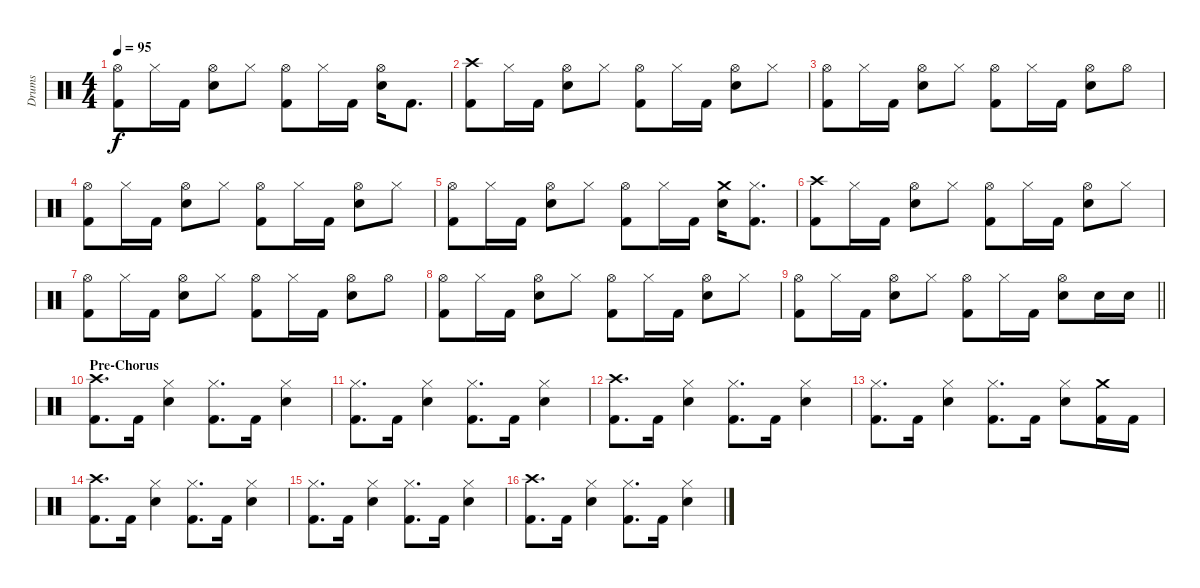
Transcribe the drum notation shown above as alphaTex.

\track ("Drums" "Drums") {instrument percussion}
\staff {score}
\articulation defaults
\ts (4 4)
\tempo 95
\clef neutral
\ks c
("Hi-Hat (open)" "Kick (hit) 2").8{dy f} "Hi-Hat (closed)".16 "Kick (hit) 2".16 ("Hi-Hat (open)" "Snare (hit) 2").8 "Hi-Hat (closed)".8 ("Hi-Hat (open)" "Kick (hit) 2").8 "Hi-Hat (closed)".16 "Kick (hit) 2".16 ("Hi-Hat (open)" "Snare (hit) 2").16 "Kick (hit) 2".8{d} |
("Crash high (hit)" "Kick (hit) 2").8 "Hi-Hat (closed)".16 "Kick (hit) 2".16 ("Hi-Hat (open)" "Snare (hit) 2").8 "Hi-Hat (closed)".8 ("Hi-Hat (open)" "Kick (hit) 2").8 "Hi-Hat (closed)".16 "Kick (hit) 2".16 ("Hi-Hat (open)" "Snare (hit) 2").8 "Hi-Hat (closed)".8 |
("Hi-Hat (open)" "Kick (hit) 2").8 "Hi-Hat (closed)".16 "Kick (hit) 2".16 ("Hi-Hat (open)" "Snare (hit) 2").8 "Hi-Hat (closed)".8 ("Hi-Hat (open)" "Kick (hit) 2").8 "Hi-Hat (closed)".16 "Kick (hit) 2".16 ("Hi-Hat (open)" "Snare (hit) 2").8 "Hi-Hat (open)".8 |
("Hi-Hat (open)" "Kick (hit) 2").8 "Hi-Hat (closed)".16 "Kick (hit) 2".16 ("Hi-Hat (open)" "Snare (hit) 2").8 "Hi-Hat (closed)".8 ("Hi-Hat (open)" "Kick (hit) 2").8 "Hi-Hat (closed)".16 "Kick (hit) 2".16 ("Hi-Hat (open)" "Snare (hit) 2").8 "Hi-Hat (closed)".8 |
("Hi-Hat (open)" "Kick (hit) 2").8 "Hi-Hat (closed)".16 "Kick (hit) 2".16 ("Hi-Hat (open)" "Snare (hit) 2").8 "Hi-Hat (closed)".8 ("Hi-Hat (open)" "Kick (hit) 2").8 "Hi-Hat (closed)".16 "Kick (hit) 2".16 ("Crash medium (hit)" "Snare (hit) 2").16 ("Hi-Hat (closed)" "Kick (hit) 2").8{d} |
("Crash high (hit)" "Kick (hit) 2").8 "Hi-Hat (closed)".16 "Kick (hit) 2".16 ("Hi-Hat (open)" "Snare (hit) 2").8 "Hi-Hat (closed)".8 ("Hi-Hat (open)" "Kick (hit) 2").8 "Hi-Hat (closed)".16 "Kick (hit) 2".16 ("Hi-Hat (open)" "Snare (hit) 2").8 "Hi-Hat (closed)".8 |
("Hi-Hat (open)" "Kick (hit) 2").8 "Hi-Hat (closed)".16 "Kick (hit) 2".16 ("Hi-Hat (open)" "Snare (hit) 2").8 "Hi-Hat (closed)".8 ("Hi-Hat (open)" "Kick (hit) 2").8 "Hi-Hat (closed)".16 "Kick (hit) 2".16 ("Hi-Hat (open)" "Snare (hit) 2").8 "Hi-Hat (open)".8 |
("Hi-Hat (open)" "Kick (hit) 2").8 "Hi-Hat (closed)".16 "Kick (hit) 2".16 ("Hi-Hat (open)" "Snare (hit) 2").8 "Hi-Hat (closed)".8 ("Hi-Hat (open)" "Kick (hit) 2").8 "Hi-Hat (closed)".16 "Kick (hit) 2".16 ("Hi-Hat (open)" "Snare (hit) 2").8 "Hi-Hat (closed)".8 |
\barLineRight lightlight
("Hi-Hat (open)" "Kick (hit) 2").8 "Hi-Hat (closed)".16 "Kick (hit) 2".16 ("Hi-Hat (open)" "Snare (hit) 2").8 "Hi-Hat (closed)".8 ("Hi-Hat (open)" "Kick (hit) 2").8 "Hi-Hat (closed)".16 "Kick (hit) 2".16 ("Hi-Hat (open)" "Snare (hit) 2").8 "Snare (hit) 2".16 "Snare (hit) 2".16 |
\section ("" "Pre-Chorus")
("Crash high (hit)" "Kick (hit) 2").8{d} "Kick (hit) 2".16 ("Hi-Hat (closed)" "Snare (hit) 2").4 ("Hi-Hat (closed)" "Kick (hit) 2").8{d} "Kick (hit) 2".16 ("Hi-Hat (closed)" "Snare (hit) 2").4 |
("Hi-Hat (closed)" "Kick (hit) 2").8{d} "Kick (hit) 2".16 ("Hi-Hat (closed)" "Snare (hit) 2").4 ("Hi-Hat (closed)" "Kick (hit) 2").8{d} "Kick (hit) 2".16 ("Hi-Hat (closed)" "Snare (hit) 2").4 |
("Crash high (hit)" "Kick (hit) 2").8{d} "Kick (hit) 2".16 ("Hi-Hat (closed)" "Snare (hit) 2").4 ("Hi-Hat (closed)" "Kick (hit) 2").8{d} "Kick (hit) 2".16 ("Hi-Hat (closed)" "Snare (hit) 2").4 |
("Hi-Hat (closed)" "Kick (hit) 2").8{d} "Kick (hit) 2".16 ("Hi-Hat (closed)" "Snare (hit) 2").4 ("Hi-Hat (closed)" "Kick (hit) 2").8{d} "Kick (hit) 2".16 ("Hi-Hat (closed)" "Snare (hit) 2").8 ("Crash medium (hit)" "Kick (hit) 2").16 "Kick (hit) 2".16 |
("Crash high (hit)" "Kick (hit) 2").8{d} "Kick (hit) 2".16 ("Hi-Hat (closed)" "Snare (hit) 2").4 ("Hi-Hat (closed)" "Kick (hit) 2").8{d} "Kick (hit) 2".16 ("Hi-Hat (closed)" "Snare (hit) 2").4 |
("Hi-Hat (closed)" "Kick (hit) 2").8{d} "Kick (hit) 2".16 ("Hi-Hat (closed)" "Snare (hit) 2").4 ("Hi-Hat (closed)" "Kick (hit) 2").8{d} "Kick (hit) 2".16 ("Hi-Hat (closed)" "Snare (hit) 2").4 |
("Crash high (hit)" "Kick (hit) 2").8{d} "Kick (hit) 2".16 ("Hi-Hat (closed)" "Snare (hit) 2").4 ("Hi-Hat (closed)" "Kick (hit) 2").8{d} "Kick (hit) 2".16 ("Hi-Hat (closed)" "Snare (hit) 2").4
